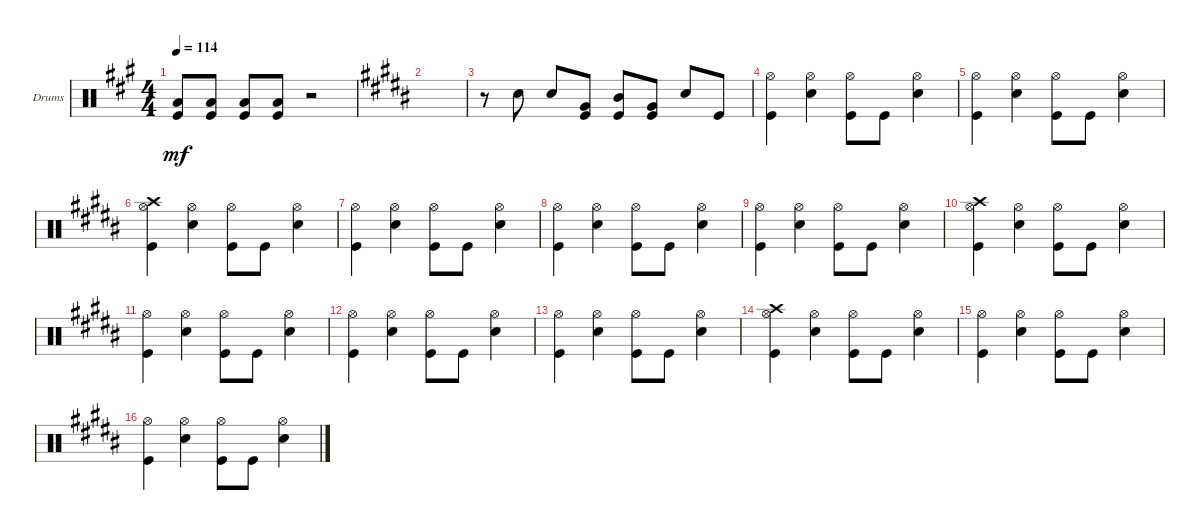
\defaultSystemsLayout 4
\bracketExtendMode groupsimilarinstruments
\firstSystemTrackNameOrientation horizontal
\otherSystemsTrackNameOrientation horizontal
\track ("Drumkit" "Drums") {instrument percussion}
\staff {score}
\articulation defaults
\ts (4 4)
\tempo 114
\clef neutral
\ks f#minor
("Kick (hit)" "Low Tom (hit)").8{dy mf} ("Kick (hit)" "Low Tom (hit)").8 ("Kick (hit)" "Low Tom (hit)").8 ("Kick (hit)" "Low Tom (hit)").8 r.2 |
\ks g#minor
|
r.8 "Snare (hit) 2".8 "Snare (hit) 2".8 ("Kick (hit)" "Very Low Tom (hit)").8 ("Kick (hit)" "Mid Tom (hit)").8 ("Kick (hit)" "Very Low Tom (hit)").8 "Snare (hit) 2".8 "Kick (hit)".8 |
("Hi-Hat (open)" "Kick (hit)").4 ("Hi-Hat (open)" "Snare (hit) 2").4 ("Hi-Hat (open)" "Kick (hit)").8 "Kick (hit)".8 ("Hi-Hat (open)" "Snare (hit) 2").4 |
("Hi-Hat (open)" "Kick (hit)").4 ("Hi-Hat (open)" "Snare (hit) 2").4 ("Hi-Hat (open)" "Kick (hit)").8 "Kick (hit)".8 ("Hi-Hat (open)" "Snare (hit) 2").4 |
("Hi-Hat (open)" "Kick (hit)" "Crash high (hit)").4 ("Hi-Hat (open)" "Snare (hit) 2").4 ("Hi-Hat (open)" "Kick (hit)").8 "Kick (hit)".8 ("Hi-Hat (open)" "Snare (hit) 2").4 |
("Hi-Hat (open)" "Kick (hit)").4 ("Hi-Hat (open)" "Snare (hit) 2").4 ("Hi-Hat (open)" "Kick (hit)").8 "Kick (hit)".8 ("Hi-Hat (open)" "Snare (hit) 2").4 |
("Hi-Hat (open)" "Kick (hit)").4 ("Hi-Hat (open)" "Snare (hit) 2").4 ("Hi-Hat (open)" "Kick (hit)").8 "Kick (hit)".8 ("Hi-Hat (open)" "Snare (hit) 2").4 |
("Hi-Hat (open)" "Kick (hit)").4 ("Hi-Hat (open)" "Snare (hit) 2").4 ("Hi-Hat (open)" "Kick (hit)").8 "Kick (hit)".8 ("Hi-Hat (open)" "Snare (hit) 2").4 |
("Hi-Hat (open)" "Kick (hit)" "Crash high (hit)").4 ("Hi-Hat (open)" "Snare (hit) 2").4 ("Hi-Hat (open)" "Kick (hit)").8 "Kick (hit)".8 ("Hi-Hat (open)" "Snare (hit) 2").4 |
("Hi-Hat (open)" "Kick (hit)").4 ("Hi-Hat (open)" "Snare (hit) 2").4 ("Hi-Hat (open)" "Kick (hit)").8 "Kick (hit)".8 ("Hi-Hat (open)" "Snare (hit) 2").4 |
("Hi-Hat (open)" "Kick (hit)").4 ("Hi-Hat (open)" "Snare (hit) 2").4 ("Hi-Hat (open)" "Kick (hit)").8 "Kick (hit)".8 ("Hi-Hat (open)" "Snare (hit) 2").4 |
("Hi-Hat (open)" "Kick (hit)").4 ("Hi-Hat (open)" "Snare (hit) 2").4 ("Hi-Hat (open)" "Kick (hit)").8 "Kick (hit)".8 ("Hi-Hat (open)" "Snare (hit) 2").4 |
("Hi-Hat (open)" "Kick (hit)" "Crash high (hit)").4 ("Hi-Hat (open)" "Snare (hit) 2").4 ("Hi-Hat (open)" "Kick (hit)").8 "Kick (hit)".8 ("Hi-Hat (open)" "Snare (hit) 2").4 |
("Hi-Hat (open)" "Kick (hit)").4 ("Hi-Hat (open)" "Snare (hit) 2").4 ("Hi-Hat (open)" "Kick (hit)").8 "Kick (hit)".8 ("Hi-Hat (open)" "Snare (hit) 2").4 |
("Hi-Hat (open)" "Kick (hit)").4 ("Hi-Hat (open)" "Snare (hit) 2").4 ("Hi-Hat (open)" "Kick (hit)").8 "Kick (hit)".8 ("Hi-Hat (open)" "Snare (hit) 2").4
